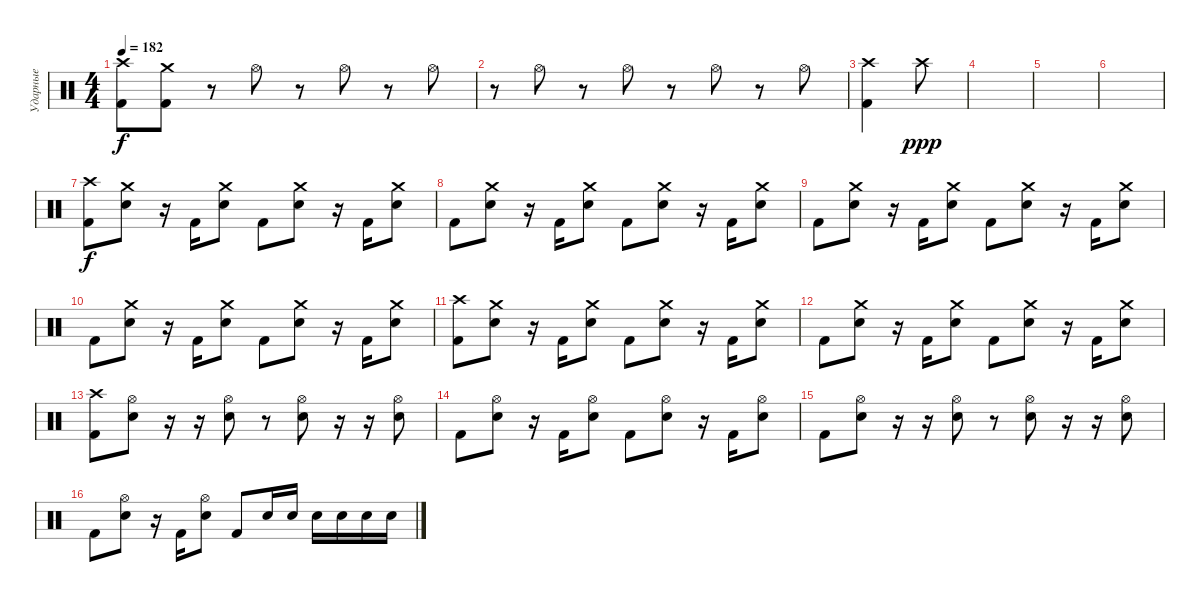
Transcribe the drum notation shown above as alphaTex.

\track ("Ударные" "Ударные") {instrument percussion}
\staff {score}
\articulation defaults
\ts (4 4)
\tempo 182
\clef neutral
\ks c
("Crash high (hit)" "Kick (hit) 2").8{dy f} ("Crash medium (hit)" "Kick (hit) 2").8 r.8 "Hi-Hat (open)".8 r.8 "Hi-Hat (open)".8 r.8 "Hi-Hat (open)".8 |
r.8 "Hi-Hat (open)".8 r.8 "Hi-Hat (open)".8 r.8 "Hi-Hat (open)".8 r.8 "Hi-Hat (open)".8 |
("Crash high (hit)" "Kick (hit) 2").4 "Crash high (hit)".8{dy ppp} |
|
|
|
("Crash high (hit)" "Kick (hit) 2").8{dy f} ("Crash medium (hit)" "Electric Snare (hit)").8 r.16 "Kick (hit) 2".16 ("Crash medium (hit)" "Electric Snare (hit)").8 "Kick (hit) 2".8 ("Crash medium (hit)" "Electric Snare (hit)").8 r.16 "Kick (hit) 2".16 ("Crash medium (hit)" "Electric Snare (hit)").8 |
"Kick (hit) 2".8 ("Crash medium (hit)" "Electric Snare (hit)").8 r.16 "Kick (hit) 2".16 ("Crash medium (hit)" "Electric Snare (hit)").8 "Kick (hit) 2".8 ("Crash medium (hit)" "Electric Snare (hit)").8 r.16 "Kick (hit) 2".16 ("Crash medium (hit)" "Electric Snare (hit)").8 |
"Kick (hit) 2".8 ("Crash medium (hit)" "Electric Snare (hit)").8 r.16 "Kick (hit) 2".16 ("Crash medium (hit)" "Electric Snare (hit)").8 "Kick (hit) 2".8 ("Crash medium (hit)" "Electric Snare (hit)").8 r.16 "Kick (hit) 2".16 ("Crash medium (hit)" "Electric Snare (hit)").8 |
"Kick (hit) 2".8 ("Crash medium (hit)" "Electric Snare (hit)").8 r.16 "Kick (hit) 2".16 ("Crash medium (hit)" "Electric Snare (hit)").8 "Kick (hit) 2".8 ("Crash medium (hit)" "Electric Snare (hit)").8 r.16 "Kick (hit) 2".16 ("Crash medium (hit)" "Electric Snare (hit)").8 |
("Crash high (hit)" "Kick (hit) 2").8 ("Crash medium (hit)" "Electric Snare (hit)").8 r.16 "Kick (hit) 2".16 ("Crash medium (hit)" "Electric Snare (hit)").8 "Kick (hit) 2".8 ("Crash medium (hit)" "Electric Snare (hit)").8 r.16 "Kick (hit) 2".16 ("Crash medium (hit)" "Electric Snare (hit)").8 |
"Kick (hit) 2".8 ("Crash medium (hit)" "Electric Snare (hit)").8 r.16 "Kick (hit) 2".16 ("Crash medium (hit)" "Electric Snare (hit)").8 "Kick (hit) 2".8 ("Crash medium (hit)" "Electric Snare (hit)").8 r.16 "Kick (hit) 2".16 ("Crash medium (hit)" "Electric Snare (hit)").8 |
("Crash high (hit)" "Kick (hit) 2").8 ("Hi-Hat (open)" "Electric Snare (hit)").8 r.16 r.16 ("Hi-Hat (open)" "Electric Snare (hit)").8 r.8 ("Hi-Hat (open)" "Electric Snare (hit)").8 r.16 r.16 ("Hi-Hat (open)" "Electric Snare (hit)").8 |
"Kick (hit) 2".8 ("Hi-Hat (open)" "Electric Snare (hit)").8 r.16 "Kick (hit) 2".16 ("Hi-Hat (open)" "Electric Snare (hit)").8 "Kick (hit) 2".8 ("Hi-Hat (open)" "Electric Snare (hit)").8 r.16 "Kick (hit) 2".16 ("Hi-Hat (open)" "Electric Snare (hit)").8 |
"Kick (hit) 2".8 ("Hi-Hat (open)" "Electric Snare (hit)").8 r.16 r.16 ("Hi-Hat (open)" "Electric Snare (hit)").8 r.8 ("Hi-Hat (open)" "Electric Snare (hit)").8 r.16 r.16 ("Hi-Hat (open)" "Electric Snare (hit)").8 |
"Kick (hit) 2".8 ("Hi-Hat (open)" "Electric Snare (hit)").8 r.16 "Kick (hit) 2".16 ("Hi-Hat (open)" "Electric Snare (hit)").8 "Kick (hit) 2".8 "Electric Snare (hit)".16 "Electric Snare (hit)".16 "Electric Snare (hit)".16 "Electric Snare (hit)".16 "Electric Snare (hit)".16 "Electric Snare (hit)".16
